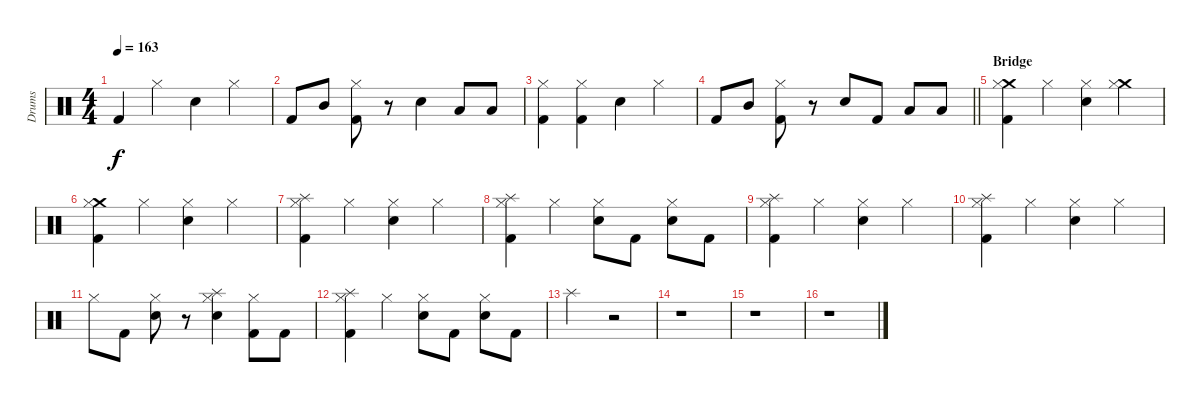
\track ("Drums" "Drums") {instrument percussion}
\staff {score}
\articulation defaults
\ts (4 4)
\tempo 163
\clef neutral
\ks c "Kick (hit) 2".4{dy f} "Hi-Hat (closed)".4 "Snare (hit) 2".4 "Hi-Hat (closed)".4
|
"Kick (hit) 2".8 "Mid Tom (hit)".8 ("Hi-Hat (closed)" "Kick (hit) 2").8 r.8 "Snare (hit) 2".4 "Low Tom (hit)".8 "Low Tom (hit)".8 |
("Hi-Hat (closed)" "Kick (hit) 2").4 ("Hi-Hat (closed)" "Kick (hit) 2").4 "Snare (hit) 2".4 "Hi-Hat (closed)".4 |
\barLineRight lightlight "Kick (hit) 2".8 "Mid Tom (hit)".8
("Hi-Hat (closed)" "Kick (hit) 2").8 r.8 "Snare (hit) 2".8 "Kick (hit) 2".8 "Low Tom (hit)".8 "Low Tom (hit)".8 |
\section ("" "Bridge")
("Crash medium (hit)" "Kick (hit) 2" "Hi-Hat (closed)").4 "Hi-Hat (closed)".4 ("Snare (hit) 2" "Hi-Hat (closed)").4 ("Crash medium (hit)" "Hi-Hat (closed)").4 |
("Crash medium (hit)" "Kick (hit) 2" "Hi-Hat (closed)").4 "Hi-Hat (closed)".4 ("Snare (hit) 2" "Hi-Hat (closed)").4 "Hi-Hat (closed)".4 |
("Splash (hit)" "Kick (hit) 2" "Hi-Hat (closed)").4 "Hi-Hat (closed)".4 ("Snare (hit) 2" "Hi-Hat (closed)").4 "Hi-Hat (closed)".4 |
("Splash (hit)" "Kick (hit) 2" "Hi-Hat (closed)").4 "Hi-Hat (closed)".4 ("Snare (hit) 2" "Hi-Hat (closed)").8 "Kick (hit) 2".8 ("Snare (hit) 2" "Hi-Hat (closed)").8 "Kick (hit) 2".8 |
("Splash (hit)" "Kick (hit) 2" "Hi-Hat (closed)").4 "Hi-Hat (closed)".4 ("Snare (hit) 2" "Hi-Hat (closed)").4 "Hi-Hat (closed)".4 |
("Splash (hit)" "Kick (hit) 2" "Hi-Hat (closed)").4 "Hi-Hat (closed)".4 ("Snare (hit) 2" "Hi-Hat (closed)").4 "Hi-Hat (closed)".4 |
"Hi-Hat (closed)".8 "Kick (hit) 2".8 ("Snare (hit) 2" "Hi-Hat (closed)").8 r.8 ("Splash (hit)" "Snare (hit) 2" "Hi-Hat (closed)").4 ("Kick (hit) 2" "Hi-Hat (closed)").8 "Kick (hit) 2".8 |
("Splash (hit)" "Kick (hit) 2" "Hi-Hat (closed)").4 "Hi-Hat (closed)".4 ("Snare (hit) 2" "Hi-Hat (closed)").8 "Kick (hit) 2".8 ("Snare (hit) 2" "Hi-Hat (closed)").8 "Kick (hit) 2".8 |
"Splash (hit)".2 r.2 |
r.1 |
r.1 |
r.1
